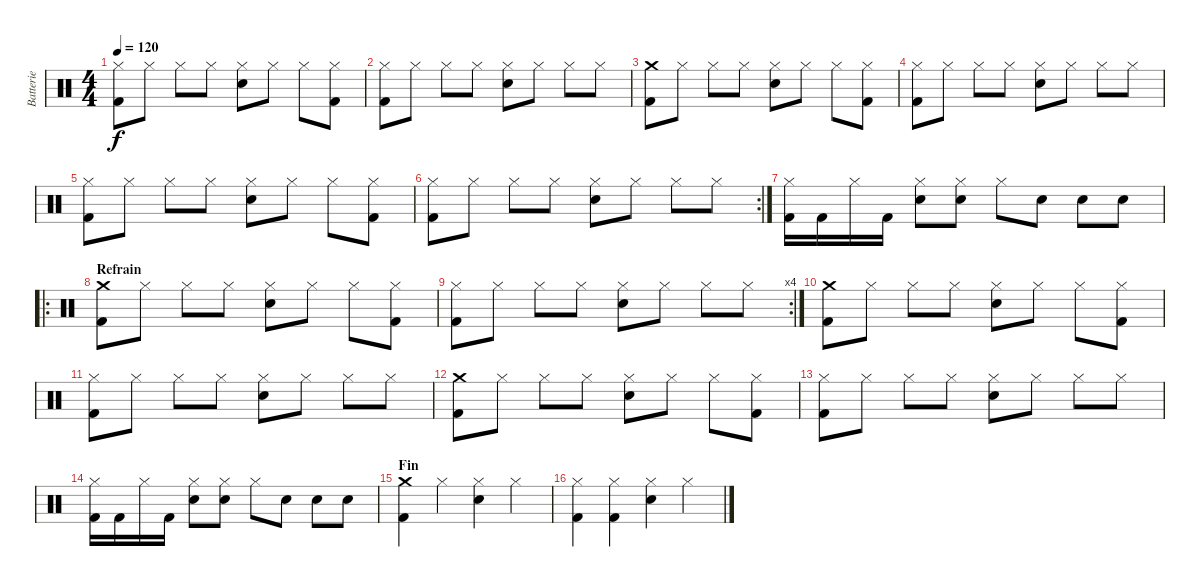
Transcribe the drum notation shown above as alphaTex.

\track ("Batterie" "Batterie") {instrument percussion}
\staff {score}
\articulation defaults
\ts (4 4)
\tempo 120
\clef neutral
\ks c
("Kick (hit) 2" "Hi-Hat (closed)").8{dy f} "Hi-Hat (closed)".8 "Hi-Hat (closed)".8 "Hi-Hat (closed)".8 ("Snare (hit) 2" "Hi-Hat (closed)").8 "Hi-Hat (closed)".8 "Hi-Hat (closed)".8 ("Kick (hit) 2" "Hi-Hat (closed)").8 |
("Kick (hit) 2" "Hi-Hat (closed)").8 "Hi-Hat (closed)".8 "Hi-Hat (closed)".8 "Hi-Hat (closed)".8 ("Snare (hit) 2" "Hi-Hat (closed)").8 "Hi-Hat (closed)".8 "Hi-Hat (closed)".8 "Hi-Hat (closed)".8 |
("Kick (hit) 2" "Crash medium (hit)").8 "Hi-Hat (closed)".8 "Hi-Hat (closed)".8 "Hi-Hat (closed)".8 ("Snare (hit) 2" "Hi-Hat (closed)").8 "Hi-Hat (closed)".8 "Hi-Hat (closed)".8 ("Kick (hit) 2" "Hi-Hat (closed)").8 |
("Kick (hit) 2" "Hi-Hat (closed)").8 "Hi-Hat (closed)".8 "Hi-Hat (closed)".8 "Hi-Hat (closed)".8 ("Snare (hit) 2" "Hi-Hat (closed)").8 "Hi-Hat (closed)".8 "Hi-Hat (closed)".8 "Hi-Hat (closed)".8 |
("Kick (hit) 2" "Hi-Hat (closed)").8 "Hi-Hat (closed)".8 "Hi-Hat (closed)".8 "Hi-Hat (closed)".8 ("Snare (hit) 2" "Hi-Hat (closed)").8 "Hi-Hat (closed)".8 "Hi-Hat (closed)".8 ("Kick (hit) 2" "Hi-Hat (closed)").8 |
\rc 2
("Kick (hit) 2" "Hi-Hat (closed)").8 "Hi-Hat (closed)".8 "Hi-Hat (closed)".8 "Hi-Hat (closed)".8 ("Snare (hit) 2" "Hi-Hat (closed)").8 "Hi-Hat (closed)".8 "Hi-Hat (closed)".8 "Hi-Hat (closed)".8 |
("Kick (hit) 2" "Hi-Hat (closed)").16 "Kick (hit) 2".16 "Hi-Hat (closed)".16 "Kick (hit) 2".16 ("Snare (hit) 2" "Hi-Hat (closed)").8 ("Snare (hit) 2" "Hi-Hat (closed)").8 "Hi-Hat (closed)".8 "Snare (hit) 2".8 "Snare (hit) 2".8 "Snare (hit) 2".8 |
\ro
\section ("" "Refrain")
("Kick (hit) 2" "Crash medium (hit)").8 "Hi-Hat (closed)".8 "Hi-Hat (closed)".8 "Hi-Hat (closed)".8 ("Snare (hit) 2" "Hi-Hat (closed)").8 "Hi-Hat (closed)".8 "Hi-Hat (closed)".8 ("Kick (hit) 2" "Hi-Hat (closed)").8 |
\rc 4
("Kick (hit) 2" "Hi-Hat (closed)").8 "Hi-Hat (closed)".8 "Hi-Hat (closed)".8 "Hi-Hat (closed)".8 ("Snare (hit) 2" "Hi-Hat (closed)").8 "Hi-Hat (closed)".8 "Hi-Hat (closed)".8 "Hi-Hat (closed)".8 |
("Kick (hit) 2" "Crash medium (hit)").8 "Hi-Hat (closed)".8 "Hi-Hat (closed)".8 "Hi-Hat (closed)".8 ("Snare (hit) 2" "Hi-Hat (closed)").8 "Hi-Hat (closed)".8 "Hi-Hat (closed)".8 ("Kick (hit) 2" "Hi-Hat (closed)").8 |
("Kick (hit) 2" "Hi-Hat (closed)").8 "Hi-Hat (closed)".8 "Hi-Hat (closed)".8 "Hi-Hat (closed)".8 ("Snare (hit) 2" "Hi-Hat (closed)").8 "Hi-Hat (closed)".8 "Hi-Hat (closed)".8 "Hi-Hat (closed)".8 |
("Kick (hit) 2" "Crash medium (hit)").8 "Hi-Hat (closed)".8 "Hi-Hat (closed)".8 "Hi-Hat (closed)".8 ("Snare (hit) 2" "Hi-Hat (closed)").8 "Hi-Hat (closed)".8 "Hi-Hat (closed)".8 ("Kick (hit) 2" "Hi-Hat (closed)").8 |
("Kick (hit) 2" "Hi-Hat (closed)").8 "Hi-Hat (closed)".8 "Hi-Hat (closed)".8 "Hi-Hat (closed)".8 ("Snare (hit) 2" "Hi-Hat (closed)").8 "Hi-Hat (closed)".8 "Hi-Hat (closed)".8 "Hi-Hat (closed)".8 |
("Kick (hit) 2" "Hi-Hat (closed)").16 "Kick (hit) 2".16 "Hi-Hat (closed)".16 "Kick (hit) 2".16 ("Snare (hit) 2" "Hi-Hat (closed)").8 ("Snare (hit) 2" "Hi-Hat (closed)").8 "Hi-Hat (closed)".8 "Snare (hit) 2".8 "Snare (hit) 2".8 "Snare (hit) 2".8 |
\section ("" "Fin")
("Crash medium (hit)" "Kick (hit) 2").4 "Hi-Hat (closed)".4 ("Snare (hit) 2" "Hi-Hat (closed)").4 "Hi-Hat (closed)".4 |
("Kick (hit) 2" "Hi-Hat (closed)").4 ("Kick (hit) 2" "Hi-Hat (closed)").4 ("Snare (hit) 2" "Hi-Hat (closed)").4 "Hi-Hat (closed)".4
